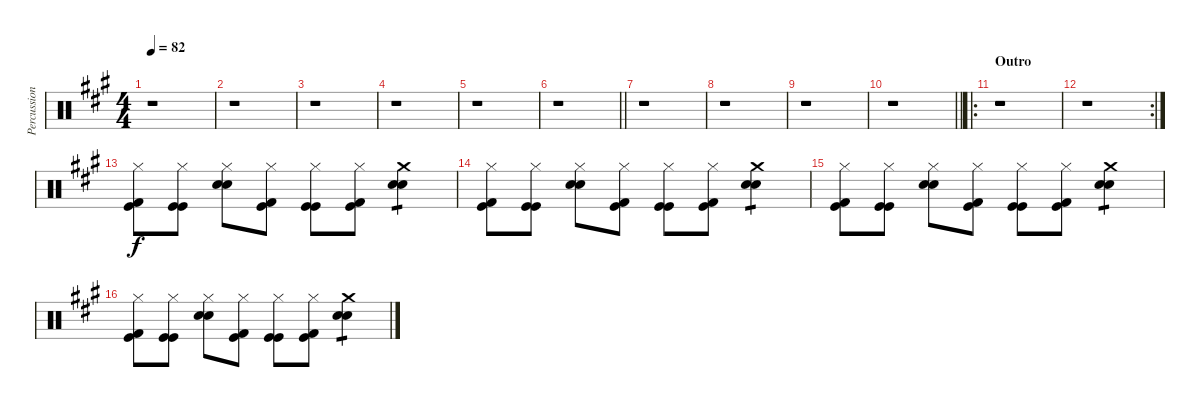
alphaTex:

\track ("Percussion" "Percussion") {instrument percussion}
\staff {score}
\articulation defaults
\ts (4 4)
\tempo 82
\clef neutral
\ks a
r.1{dy f} |
r.1 |
r.1 |
r.1 |
r.1 |
\barLineRight lightlight
r.1 |
r.1 |
r.1 |
r.1 |
\barLineRight lightlight
r.1 |
\ro
\section ("" "Outro")
r.1 |
\rc 2
r.1 |
("Hi-Hat (closed)" "Kick (hit)" "Kick (hit) 2").8 ("Hi-Hat (closed)" "Kick (hit)" "Kick (hit)").8 ("Hi-Hat (closed)" "Electric Snare (hit)" "Snare (hit) 2").8 ("Hi-Hat (closed)" "Kick (hit)" "Kick (hit) 2").8 ("Hi-Hat (closed)" "Kick (hit)" "Kick (hit)").8 ("Hi-Hat (closed)" "Kick (hit)" "Kick (hit) 2").8 ("Crash medium (hit)" "Electric Snare (hit)" "Snare (hit) 2").4{tp 1} |
("Hi-Hat (closed)" "Kick (hit)" "Kick (hit) 2").8 ("Hi-Hat (closed)" "Kick (hit)" "Kick (hit)").8 ("Hi-Hat (closed)" "Electric Snare (hit)" "Snare (hit) 2").8 ("Hi-Hat (closed)" "Kick (hit)" "Kick (hit) 2").8 ("Hi-Hat (closed)" "Kick (hit)" "Kick (hit)").8 ("Hi-Hat (closed)" "Kick (hit)" "Kick (hit) 2").8 ("Crash medium (hit)" "Electric Snare (hit)" "Snare (hit) 2").4{tp 1} |
("Hi-Hat (closed)" "Kick (hit)" "Kick (hit) 2").8 ("Hi-Hat (closed)" "Kick (hit)" "Kick (hit)").8 ("Hi-Hat (closed)" "Electric Snare (hit)" "Snare (hit) 2").8 ("Hi-Hat (closed)" "Kick (hit)" "Kick (hit) 2").8 ("Hi-Hat (closed)" "Kick (hit)" "Kick (hit)").8 ("Hi-Hat (closed)" "Kick (hit)" "Kick (hit) 2").8 ("Crash medium (hit)" "Electric Snare (hit)" "Snare (hit) 2").4{tp 1} |
("Hi-Hat (closed)" "Kick (hit)" "Kick (hit) 2").8 ("Hi-Hat (closed)" "Kick (hit)" "Kick (hit)").8 ("Hi-Hat (closed)" "Electric Snare (hit)" "Snare (hit) 2").8 ("Hi-Hat (closed)" "Kick (hit)" "Kick (hit) 2").8 ("Hi-Hat (closed)" "Kick (hit)" "Kick (hit)").8 ("Hi-Hat (closed)" "Kick (hit)" "Kick (hit) 2").8 ("Crash medium (hit)" "Electric Snare (hit)" "Snare (hit) 2").4{tp 1}
